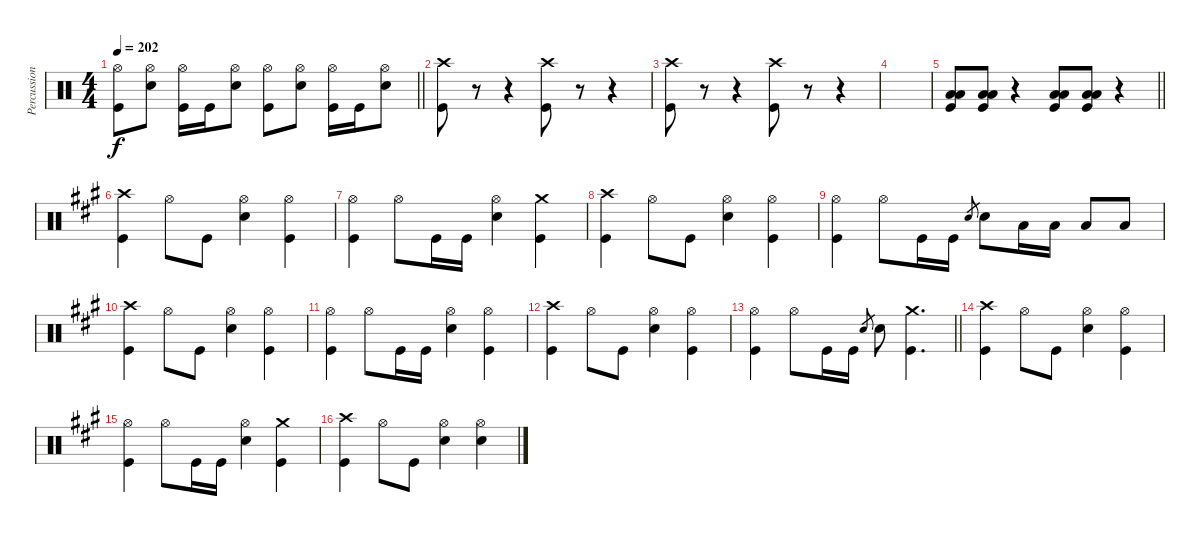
\track ("Percussion" "Percussion") {instrument percussion}
\staff {score}
\articulation defaults
\ts (4 4)
\tempo 202
\clef neutral
\barLineRight lightlight
\ks c
("Hi-Hat (open)" "Kick (hit)").8{dy f} ("Hi-Hat (open)" "Electric Snare (hit)").8 ("Hi-Hat (open)" "Kick (hit)").16 "Kick (hit)".16 ("Hi-Hat (open)" "Electric Snare (hit)").8 ("Hi-Hat (open)" "Kick (hit)").8 ("Hi-Hat (open)" "Electric Snare (hit)").8 ("Hi-Hat (open)" "Kick (hit)").16 "Kick (hit)".16 ("Hi-Hat (open)" "Electric Snare (hit)").8 |
("Crash high (hit)" "Kick (hit)").8 r.8{volume 0} r.4 ("Crash high (hit)" "Kick (hit)").8{volume 13} r.8{volume 0} r.4 |
("Crash high (hit)" "Kick (hit)").8{volume 13} r.8{volume 0} r.4 ("Crash high (hit)" "Kick (hit)").8{volume 13} r.8{volume 0} r.4 |
|
\barLineRight lightlight
("Low Tom (hit)" "Low Floor Tom (hit)" "Kick (hit)").8{volume 9} ("Low Tom (hit)" "Low Floor Tom (hit)" "Kick (hit)").8 r.4 ("Low Tom (hit)" "Low Floor Tom (hit)" "Kick (hit)").8 ("Low Tom (hit)" "Low Floor Tom (hit)" "Kick (hit)").8 r.4 |
\ks a
("Crash high (hit)" "Kick (hit)").4 "Hi-Hat (open)".8 "Kick (hit)".8 ("Hi-Hat (open)" "Electric Snare (hit)").4 ("Hi-Hat (open)" "Kick (hit)").4 |
("Hi-Hat (open)" "Kick (hit)").4 "Hi-Hat (open)".8 "Kick (hit)".16 "Kick (hit)".16 ("Hi-Hat (open)" "Electric Snare (hit)").4 ("Crash medium (hit)" "Kick (hit)").4 |
("Crash high (hit)" "Kick (hit)").4 "Hi-Hat (open)".8 "Kick (hit)".8 ("Hi-Hat (open)" "Electric Snare (hit)").4 ("Hi-Hat (open)" "Kick (hit)").4 |
("Hi-Hat (open)" "Kick (hit)").4 "Hi-Hat (open)".8 "Kick (hit)".16 "Kick (hit)".16 "Electric Snare (hit)".8{gr} "Electric Snare (hit)".8 "Low Tom (hit)".16 "Low Tom (hit)".16 "Low Tom (hit)".8 "Low Floor Tom (hit)".8 |
("Crash high (hit)" "Kick (hit)").4 "Hi-Hat (open)".8 "Kick (hit)".8 ("Hi-Hat (open)" "Electric Snare (hit)").4 ("Hi-Hat (open)" "Kick (hit)").4 |
("Hi-Hat (open)" "Kick (hit)").4 "Hi-Hat (open)".8 "Kick (hit)".16 "Kick (hit)".16 ("Hi-Hat (open)" "Electric Snare (hit)").4 ("Hi-Hat (open)" "Kick (hit)").4 |
("Crash high (hit)" "Kick (hit)").4 "Hi-Hat (open)".8 "Kick (hit)".8 ("Hi-Hat (open)" "Electric Snare (hit)").4 ("Hi-Hat (open)" "Kick (hit)").4 |
\barLineRight lightlight
("Hi-Hat (open)" "Kick (hit)").4 "Hi-Hat (open)".8 "Kick (hit)".16 "Kick (hit)".16 "Electric Snare (hit)".8{gr} "Electric Snare (hit)".8 ("Crash medium (hit)" "Kick (hit)").4{d} |
("Crash high (hit)" "Kick (hit)").4 "Hi-Hat (open)".8 "Kick (hit)".8 ("Hi-Hat (open)" "Electric Snare (hit)").4 ("Hi-Hat (open)" "Kick (hit)").4 |
("Hi-Hat (open)" "Kick (hit)").4 "Hi-Hat (open)".8 "Kick (hit)".16 "Kick (hit)".16 ("Hi-Hat (open)" "Electric Snare (hit)").4 ("Crash medium (hit)" "Kick (hit)").4 |
("Crash high (hit)" "Kick (hit)").4 "Hi-Hat (open)".8 "Kick (hit)".8 ("Hi-Hat (open)" "Electric Snare (hit)").4 ("Hi-Hat (open)" "Electric Snare (hit)").4
